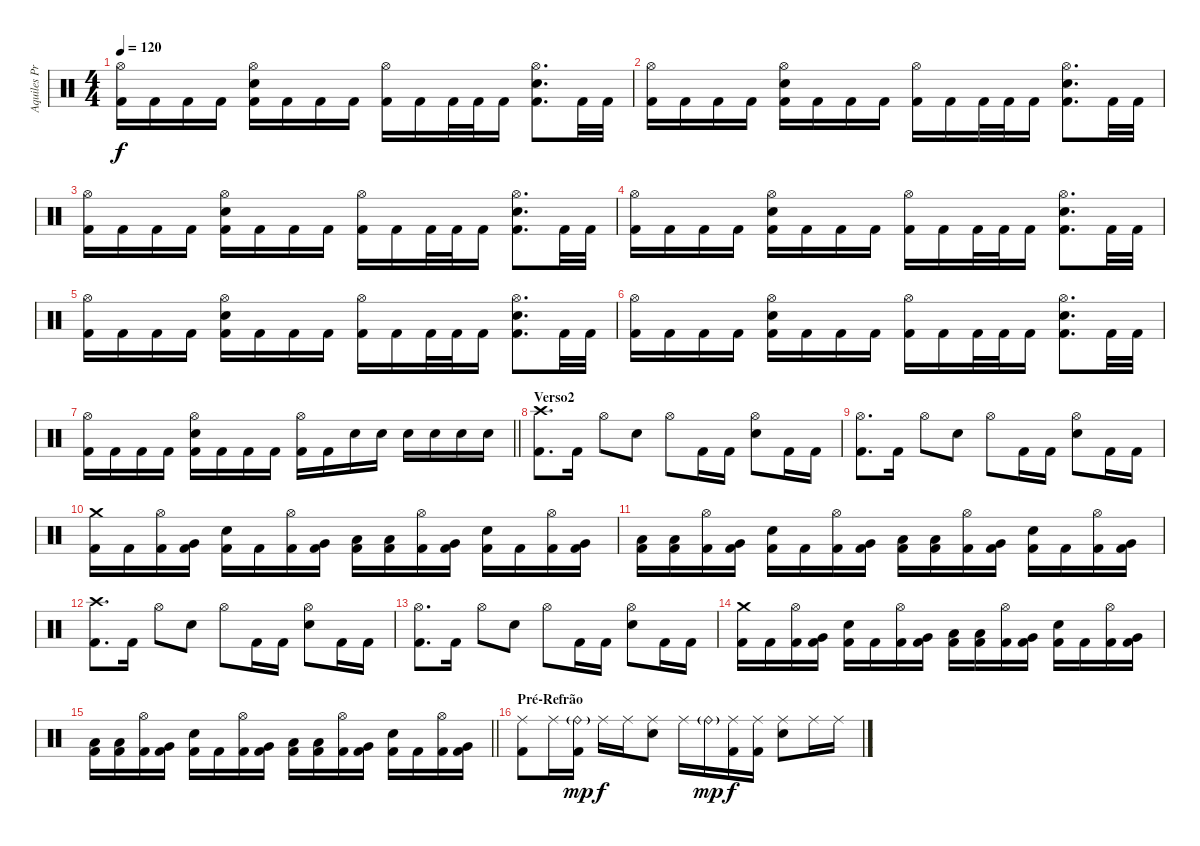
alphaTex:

\track ("Aquiles Priester" "Aquiles Pr") {instrument percussion}
\staff {score}
\articulation defaults
\ts (4 4)
\tempo 120
\clef neutral
\ks c
("Hi-Hat (open)" "Kick (hit) 2").16{dy f} "Kick (hit) 2".16 "Kick (hit) 2".16 "Kick (hit) 2".16 ("Hi-Hat (open)" "Electric Snare (hit)" "Kick (hit) 2").16 "Kick (hit) 2".16 "Kick (hit) 2".16 "Kick (hit) 2".16 ("Hi-Hat (open)" "Kick (hit) 2").16 "Kick (hit) 2".16 "Kick (hit) 2".32 "Kick (hit) 2".32 "Kick (hit) 2".16 ("Hi-Hat (open)" "Electric Snare (hit)" "Kick (hit) 2").8{d} "Kick (hit) 2".32 "Kick (hit) 2".32 |
("Hi-Hat (open)" "Kick (hit) 2").16 "Kick (hit) 2".16 "Kick (hit) 2".16 "Kick (hit) 2".16 ("Hi-Hat (open)" "Electric Snare (hit)" "Kick (hit) 2").16 "Kick (hit) 2".16 "Kick (hit) 2".16 "Kick (hit) 2".16 ("Hi-Hat (open)" "Kick (hit) 2").16 "Kick (hit) 2".16 "Kick (hit) 2".32 "Kick (hit) 2".32 "Kick (hit) 2".16 ("Hi-Hat (open)" "Electric Snare (hit)" "Kick (hit) 2").8{d} "Kick (hit) 2".32 "Kick (hit) 2".32 |
("Hi-Hat (open)" "Kick (hit) 2").16 "Kick (hit) 2".16 "Kick (hit) 2".16 "Kick (hit) 2".16 ("Hi-Hat (open)" "Electric Snare (hit)" "Kick (hit) 2").16 "Kick (hit) 2".16 "Kick (hit) 2".16 "Kick (hit) 2".16 ("Hi-Hat (open)" "Kick (hit) 2").16 "Kick (hit) 2".16 "Kick (hit) 2".32 "Kick (hit) 2".32 "Kick (hit) 2".16 ("Hi-Hat (open)" "Electric Snare (hit)" "Kick (hit) 2").8{d} "Kick (hit) 2".32 "Kick (hit) 2".32 |
("Hi-Hat (open)" "Kick (hit) 2").16 "Kick (hit) 2".16 "Kick (hit) 2".16 "Kick (hit) 2".16 ("Hi-Hat (open)" "Electric Snare (hit)" "Kick (hit) 2").16 "Kick (hit) 2".16 "Kick (hit) 2".16 "Kick (hit) 2".16 ("Hi-Hat (open)" "Kick (hit) 2").16 "Kick (hit) 2".16 "Kick (hit) 2".32 "Kick (hit) 2".32 "Kick (hit) 2".16 ("Hi-Hat (open)" "Electric Snare (hit)" "Kick (hit) 2").8{d} "Kick (hit) 2".32 "Kick (hit) 2".32 |
("Hi-Hat (open)" "Kick (hit) 2").16 "Kick (hit) 2".16 "Kick (hit) 2".16 "Kick (hit) 2".16 ("Hi-Hat (open)" "Electric Snare (hit)" "Kick (hit) 2").16 "Kick (hit) 2".16 "Kick (hit) 2".16 "Kick (hit) 2".16 ("Hi-Hat (open)" "Kick (hit) 2").16 "Kick (hit) 2".16 "Kick (hit) 2".32 "Kick (hit) 2".32 "Kick (hit) 2".16 ("Hi-Hat (open)" "Electric Snare (hit)" "Kick (hit) 2").8{d} "Kick (hit) 2".32 "Kick (hit) 2".32 |
("Hi-Hat (open)" "Kick (hit) 2").16 "Kick (hit) 2".16 "Kick (hit) 2".16 "Kick (hit) 2".16 ("Hi-Hat (open)" "Electric Snare (hit)" "Kick (hit) 2").16 "Kick (hit) 2".16 "Kick (hit) 2".16 "Kick (hit) 2".16 ("Hi-Hat (open)" "Kick (hit) 2").16 "Kick (hit) 2".16 "Kick (hit) 2".32 "Kick (hit) 2".32 "Kick (hit) 2".16 ("Hi-Hat (open)" "Electric Snare (hit)" "Kick (hit) 2").8{d} "Kick (hit) 2".32 "Kick (hit) 2".32 |
\barLineRight lightlight
("Hi-Hat (open)" "Kick (hit) 2").16 "Kick (hit) 2".16 "Kick (hit) 2".16 "Kick (hit) 2".16 ("Hi-Hat (open)" "Electric Snare (hit)" "Kick (hit) 2").16 "Kick (hit) 2".16 "Kick (hit) 2".16 "Kick (hit) 2".16 ("Hi-Hat (open)" "Kick (hit) 2").16 "Kick (hit) 2".16 "Electric Snare (hit)".16 "Electric Snare (hit)".16 "Electric Snare (hit)".16 "Electric Snare (hit)".16 "Electric Snare (hit)".16 "Electric Snare (hit)".16 |
\section ("" "Verso2")
("Crash high (hit)" "Kick (hit) 2").8{d} "Kick (hit) 2".16 "Hi-Hat (open)".8 "Electric Snare (hit)".8 "Hi-Hat (open)".8 "Kick (hit) 2".16 "Kick (hit) 2".16 ("Hi-Hat (open)" "Electric Snare (hit)").8 "Kick (hit) 2".16 "Kick (hit) 2".16 |
("Hi-Hat (open)" "Kick (hit) 2").8{d} "Kick (hit) 2".16 "Hi-Hat (open)".8 "Electric Snare (hit)".8 "Hi-Hat (open)".8 "Kick (hit) 2".16 "Kick (hit) 2".16 ("Hi-Hat (open)" "Electric Snare (hit)").8 "Kick (hit) 2".16 "Kick (hit) 2".16 |
("Crash medium (hit)" "Kick (hit) 2").16 "Kick (hit) 2".16 ("Hi-Hat (open)" "Kick (hit) 2").16 ("Very Low Tom (hit)" "Kick (hit) 2").16 ("Electric Snare (hit)" "Kick (hit) 2").16 "Kick (hit) 2".16 ("Hi-Hat (open)" "Kick (hit) 2").16 ("Very Low Tom (hit)" "Kick (hit) 2").16 ("Low Tom (hit)" "Kick (hit) 2").16 ("Low Tom (hit)" "Kick (hit) 2").16 ("Hi-Hat (open)" "Kick (hit) 2").16 ("Very Low Tom (hit)" "Kick (hit) 2").16 ("Electric Snare (hit)" "Kick (hit) 2").16 "Kick (hit) 2".16 ("Hi-Hat (open)" "Kick (hit) 2").16 ("Very Low Tom (hit)" "Kick (hit) 2").16 |
("Low Tom (hit)" "Kick (hit) 2").16 ("Low Tom (hit)" "Kick (hit) 2").16 ("Hi-Hat (open)" "Kick (hit) 2").16 ("Very Low Tom (hit)" "Kick (hit) 2").16 ("Electric Snare (hit)" "Kick (hit) 2").16 "Kick (hit) 2".16 ("Hi-Hat (open)" "Kick (hit) 2").16 ("Very Low Tom (hit)" "Kick (hit) 2").16 ("Low Tom (hit)" "Kick (hit) 2").16 ("Low Tom (hit)" "Kick (hit) 2").16 ("Hi-Hat (open)" "Kick (hit) 2").16 ("Very Low Tom (hit)" "Kick (hit) 2").16 ("Electric Snare (hit)" "Kick (hit) 2").16 "Kick (hit) 2".16 ("Hi-Hat (open)" "Kick (hit) 2").16 ("Very Low Tom (hit)" "Kick (hit) 2").16 |
("Crash high (hit)" "Kick (hit) 2").8{d} "Kick (hit) 2".16 "Hi-Hat (open)".8 "Electric Snare (hit)".8 "Hi-Hat (open)".8 "Kick (hit) 2".16 "Kick (hit) 2".16 ("Hi-Hat (open)" "Electric Snare (hit)").8 "Kick (hit) 2".16 "Kick (hit) 2".16 |
("Hi-Hat (open)" "Kick (hit) 2").8{d} "Kick (hit) 2".16 "Hi-Hat (open)".8 "Electric Snare (hit)".8 "Hi-Hat (open)".8 "Kick (hit) 2".16 "Kick (hit) 2".16 ("Hi-Hat (open)" "Electric Snare (hit)").8 "Kick (hit) 2".16 "Kick (hit) 2".16 |
("Crash medium (hit)" "Kick (hit) 2").16 "Kick (hit) 2".16 ("Hi-Hat (open)" "Kick (hit) 2").16 ("Very Low Tom (hit)" "Kick (hit) 2").16 ("Electric Snare (hit)" "Kick (hit) 2").16 "Kick (hit) 2".16 ("Hi-Hat (open)" "Kick (hit) 2").16 ("Very Low Tom (hit)" "Kick (hit) 2").16 ("Low Tom (hit)" "Kick (hit) 2").16 ("Low Tom (hit)" "Kick (hit) 2").16 ("Hi-Hat (open)" "Kick (hit) 2").16 ("Very Low Tom (hit)" "Kick (hit) 2").16 ("Electric Snare (hit)" "Kick (hit) 2").16 "Kick (hit) 2".16 ("Hi-Hat (open)" "Kick (hit) 2").16 ("Very Low Tom (hit)" "Kick (hit) 2").16 |
\barLineRight lightlight
("Low Tom (hit)" "Kick (hit) 2").16 ("Low Tom (hit)" "Kick (hit) 2").16 ("Hi-Hat (open)" "Kick (hit) 2").16 ("Very Low Tom (hit)" "Kick (hit) 2").16 ("Electric Snare (hit)" "Kick (hit) 2").16 "Kick (hit) 2".16 ("Hi-Hat (open)" "Kick (hit) 2").16 ("Very Low Tom (hit)" "Kick (hit) 2").16 ("Low Tom (hit)" "Kick (hit) 2").16 ("Low Tom (hit)" "Kick (hit) 2").16 ("Hi-Hat (open)" "Kick (hit) 2").16 ("Very Low Tom (hit)" "Kick (hit) 2").16 ("Electric Snare (hit)" "Kick (hit) 2").16 "Kick (hit) 2".16 ("Hi-Hat (open)" "Kick (hit) 2").16 ("Very Low Tom (hit)" "Kick (hit) 2").16 |
\section ("" "Pré-Refrão")
("Ride (middle)" "Kick (hit) 2").8 "Ride (middle)".16 ("Ride (bell)"{g} "Kick (hit) 2").16{dy mp} "Ride (middle)".16{dy f} "Ride (middle)".16 ("Ride (middle)" "Electric Snare (hit)").8 "Ride (middle)".16 "Ride (bell)"{g}.16{dy mp} ("Ride (middle)" "Kick (hit) 2").16{dy f} ("Ride (middle)" "Kick (hit) 2").16 ("Ride (middle)" "Electric Snare (hit)").8 "Ride (middle)".16 "Ride (middle)".16
